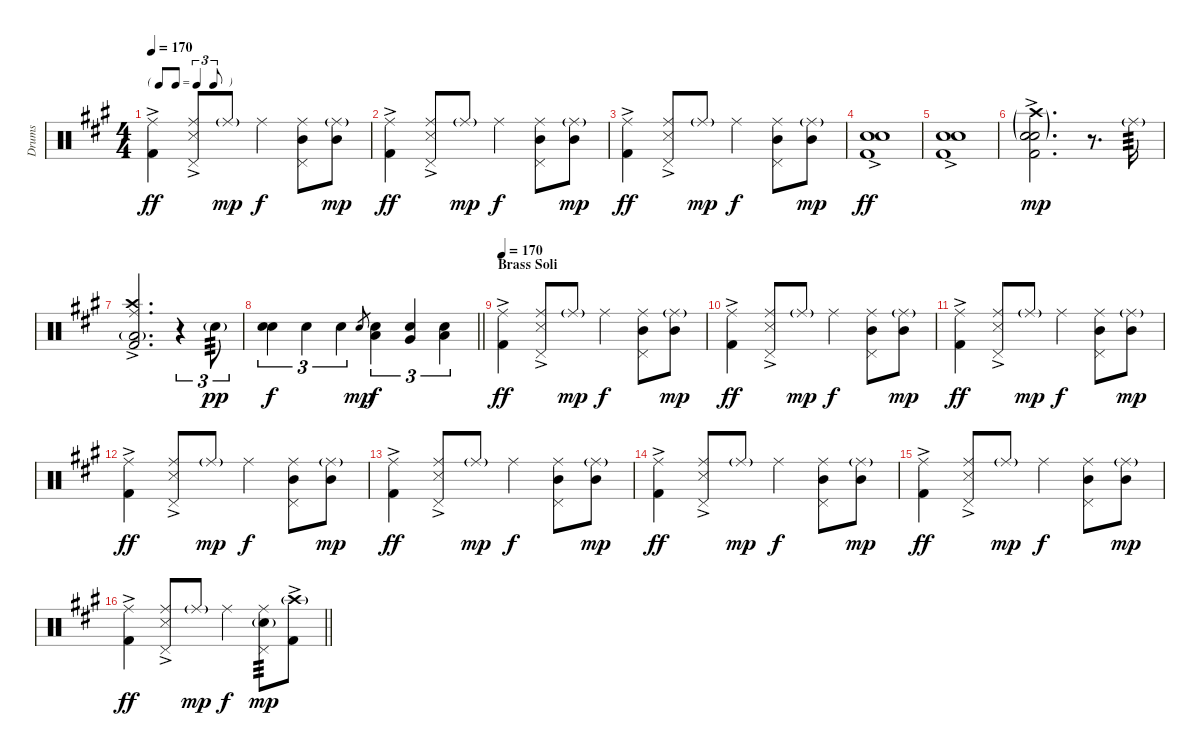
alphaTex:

\track ("Drums" "Drums") {instrument percussion}
\staff {score}
\articulation defaults
\ts (4 4)
\tf triplet8th
\tempo 170
\clef neutral
\ks a
("Kick (hit) 2"{ac} "Ride (middle)").4{dy ff} ("Snare (side stick) 3"{ac} "Pedal Hi-Hat (hit)" "Ride (middle)").8 "Ride (middle)"{g}.8{dy mp} "Ride (middle)".4{dy f} ("Mid Tom (hit)" "Pedal Hi-Hat (hit)" "Ride (middle)").8 ("Mid Tom (hit)" "Ride (middle)"{g}).8{dy mp} |
("Kick (hit) 2"{ac} "Ride (middle)").4{dy ff} ("Snare (side stick) 3"{ac} "Pedal Hi-Hat (hit)" "Ride (middle)").8 "Ride (middle)"{g}.8{dy mp} "Ride (middle)".4{dy f} ("Mid Tom (hit)" "Pedal Hi-Hat (hit)" "Ride (middle)").8 ("Mid Tom (hit)" "Ride (middle)"{g}).8{dy mp} |
("Kick (hit) 2"{ac} "Ride (middle)").4{dy ff} ("Snare (side stick) 3"{ac} "Pedal Hi-Hat (hit)" "Ride (middle)").8 "Ride (middle)"{g}.8{dy mp} "Ride (middle)".4{dy f} ("Mid Tom (hit)" "Pedal Hi-Hat (hit)" "Ride (middle)").8 ("Mid Tom (hit)" "Ride (middle)"{g}).8{dy mp} |
("Kick (hit) 2"{ac} "Electric Snare (hit)"{ac} "Snare (hit) 2").1{dy ff} |
("Kick (hit) 2"{ac} "Electric Snare (hit)"{ac} "Snare (hit) 2").1 |
("Kick (hit) 2"{ac} "Electric Snare (hit)"{g} "Snare (hit) 2"{g} "Crash high (hit)"{g}).2{d dy mp} r.8{d} "Ride (middle)"{g}.16{tp 3} |
("Kick (hit) 2"{ac} "Low Tom (hit)"{g} "Ride (middle)" "Crash high (hit)").2{d} r.4{tu (3 2)} "Snare (hit) 2"{g}.8{tu (3 2) tp 3 dy pp} |
\barLineRight lightlight
("Snare (hit) 2" "Electric Snare (hit)").4{tu (3 2) dy f} "Snare (hit) 2".4{tu (3 2)} "Snare (hit) 2".4{tu (3 2)} "Electric Snare (hit)".8{gr dy mp} ("Electric Snare (hit)" "Low Tom (hit)").4{tu (3 2) dy f} ("Electric Snare (hit)" "Very Low Tom (hit)").4{tu (3 2)} ("Electric Snare (hit)" "Low Floor Tom (hit)").4{tu (3 2)} |
\section ("" "Brass Soli")
\tempo 170
("Kick (hit) 2"{ac} "Ride (middle)").4{dy ff} ("Snare (side stick) 3"{ac} "Pedal Hi-Hat (hit)" "Ride (middle)").8 "Ride (middle)"{g}.8{dy mp} "Ride (middle)".4{dy f} ("Mid Tom (hit)" "Pedal Hi-Hat (hit)" "Ride (middle)").8 ("Mid Tom (hit)" "Ride (middle)"{g}).8{dy mp} |
("Kick (hit) 2"{ac} "Ride (middle)").4{dy ff} ("Snare (side stick) 3"{ac} "Pedal Hi-Hat (hit)" "Ride (middle)").8 "Ride (middle)"{g}.8{dy mp} "Ride (middle)".4{dy f} ("Mid Tom (hit)" "Pedal Hi-Hat (hit)" "Ride (middle)").8 ("Mid Tom (hit)" "Ride (middle)"{g}).8{dy mp} |
("Kick (hit) 2"{ac} "Ride (middle)").4{dy ff} ("Snare (side stick) 3"{ac} "Pedal Hi-Hat (hit)" "Ride (middle)").8 "Ride (middle)"{g}.8{dy mp} "Ride (middle)".4{dy f} ("Mid Tom (hit)" "Pedal Hi-Hat (hit)" "Ride (middle)").8 ("Mid Tom (hit)" "Ride (middle)"{g}).8{dy mp} |
("Kick (hit) 2"{ac} "Ride (middle)").4{dy ff} ("Snare (side stick) 3"{ac} "Pedal Hi-Hat (hit)" "Ride (middle)").8 "Ride (middle)"{g}.8{dy mp} "Ride (middle)".4{dy f} ("Mid Tom (hit)" "Pedal Hi-Hat (hit)" "Ride (middle)").8 ("Mid Tom (hit)" "Ride (middle)"{g}).8{dy mp} |
("Kick (hit) 2"{ac} "Ride (middle)").4{dy ff} ("Snare (side stick) 3"{ac} "Pedal Hi-Hat (hit)" "Ride (middle)").8 "Ride (middle)"{g}.8{dy mp} "Ride (middle)".4{dy f} ("Mid Tom (hit)" "Pedal Hi-Hat (hit)" "Ride (middle)").8 ("Mid Tom (hit)" "Ride (middle)"{g}).8{dy mp} |
("Kick (hit) 2"{ac} "Ride (middle)").4{dy ff} ("Snare (side stick) 3"{ac} "Pedal Hi-Hat (hit)" "Ride (middle)").8 "Ride (middle)"{g}.8{dy mp} "Ride (middle)".4{dy f} ("Mid Tom (hit)" "Pedal Hi-Hat (hit)" "Ride (middle)").8 ("Mid Tom (hit)" "Ride (middle)"{g}).8{dy mp} |
("Kick (hit) 2"{ac} "Ride (middle)").4{dy ff} ("Snare (side stick) 3"{ac} "Pedal Hi-Hat (hit)" "Ride (middle)").8 "Ride (middle)"{g}.8{dy mp} "Ride (middle)".4{dy f} ("Mid Tom (hit)" "Pedal Hi-Hat (hit)" "Ride (middle)").8 ("Mid Tom (hit)" "Ride (middle)"{g}).8{dy mp} |
\barLineRight lightlight
("Kick (hit) 2"{ac} "Ride (middle)").4{dy ff} ("Snare (side stick) 3"{ac} "Pedal Hi-Hat (hit)" "Ride (middle)").8 "Ride (middle)"{g}.8{dy mp} "Ride (middle)".4{dy f} ("Snare (hit) 2"{g} "Pedal Hi-Hat (hit)" "Ride (middle)").8{tp 3 dy mp} ("Kick (hit) 2"{ac} "Crash high (hit)"{g}).8
